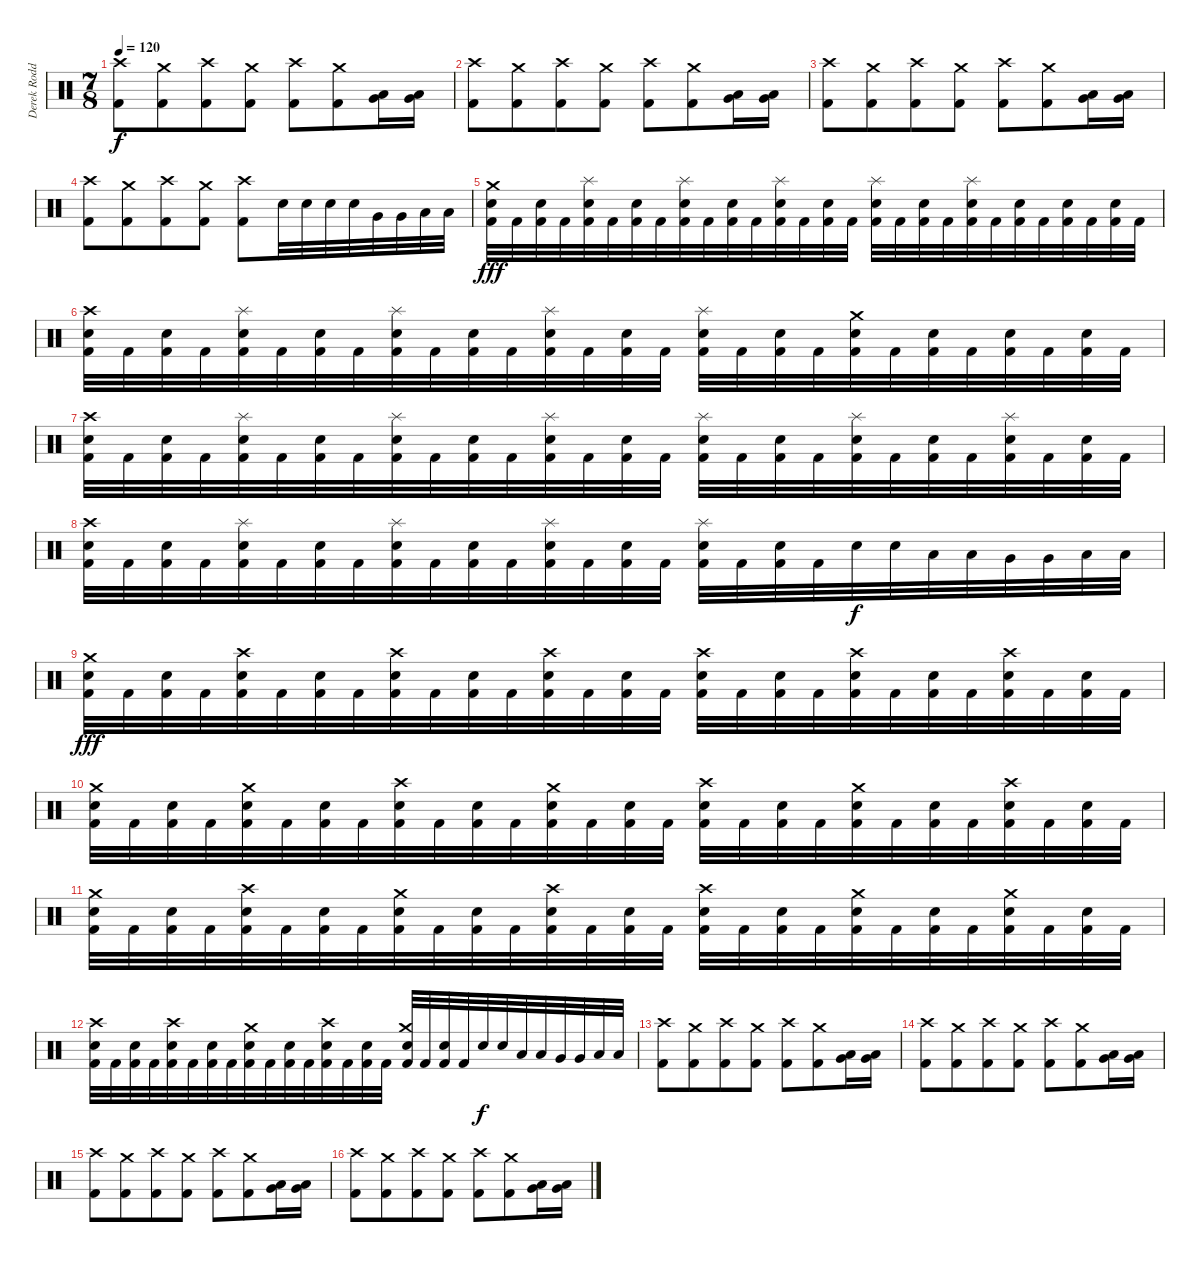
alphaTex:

\track ("Derek Roddy" "Derek Rodd") {instrument percussion}
\staff {score}
\articulation defaults
\ts (7 8)
\tempo 120
\clef neutral
\ks c
("Crash high (hit)" "Kick (hit) 2").8{dy f} ("Crash medium (hit)" "Kick (hit) 2").8 ("Crash high (hit)" "Kick (hit) 2").8 ("Crash medium (hit)" "Kick (hit) 2").8 ("Crash high (hit)" "Kick (hit) 2").8 ("Crash medium (hit)" "Kick (hit) 2").8 ("Low Tom (hit)" "Very Low Tom (hit)").16 ("Very Low Tom (hit)" "Low Floor Tom (hit)").16 |
("Crash high (hit)" "Kick (hit) 2").8 ("Crash medium (hit)" "Kick (hit) 2").8 ("Crash high (hit)" "Kick (hit) 2").8 ("Crash medium (hit)" "Kick (hit) 2").8 ("Crash high (hit)" "Kick (hit) 2").8 ("Crash medium (hit)" "Kick (hit) 2").8 ("Low Tom (hit)" "Very Low Tom (hit)").16 ("Very Low Tom (hit)" "Low Floor Tom (hit)").16 |
("Crash high (hit)" "Kick (hit) 2").8 ("Crash medium (hit)" "Kick (hit) 2").8 ("Crash high (hit)" "Kick (hit) 2").8 ("Crash medium (hit)" "Kick (hit) 2").8 ("Crash high (hit)" "Kick (hit) 2").8 ("Crash medium (hit)" "Kick (hit) 2").8 ("Low Tom (hit)" "Very Low Tom (hit)").16 ("Very Low Tom (hit)" "Low Floor Tom (hit)").16 |
("Crash high (hit)" "Kick (hit) 2").8 ("Crash medium (hit)" "Kick (hit) 2").8 ("Crash high (hit)" "Kick (hit) 2").8 ("Crash medium (hit)" "Kick (hit) 2").8 ("Crash high (hit)" "Kick (hit) 2").8 "Electric Snare (hit)".32 "Electric Snare (hit)".32 "Electric Snare (hit)".32 "Electric Snare (hit)".32 "Very Low Tom (hit)".32 "Very Low Tom (hit)".32 "Low Floor Tom (hit)".32 "Low Floor Tom (hit)".32 |
("Crash medium (hit)" "Electric Snare (hit)" "Kick (hit) 2").32{dy fff} "Kick (hit) 2".32 ("Electric Snare (hit)" "Kick (hit) 2").32 "Kick (hit) 2".32 ("Splash (hit)" "Electric Snare (hit)" "Kick (hit) 2").32 "Kick (hit) 2".32 ("Electric Snare (hit)" "Kick (hit) 2").32 "Kick (hit) 2".32 ("Splash (hit)" "Electric Snare (hit)" "Kick (hit) 2").32 "Kick (hit) 2".32 ("Electric Snare (hit)" "Kick (hit) 2").32 "Kick (hit) 2".32 ("Splash (hit)" "Electric Snare (hit)" "Kick (hit) 2").32 "Kick (hit) 2".32 ("Electric Snare (hit)" "Kick (hit) 2").32 "Kick (hit) 2".32 ("Splash (hit)" "Electric Snare (hit)" "Kick (hit) 2").32 "Kick (hit) 2".32 ("Electric Snare (hit)" "Kick (hit) 2").32 "Kick (hit) 2".32 ("Splash (hit)" "Electric Snare (hit)" "Kick (hit) 2").32 "Kick (hit) 2".32 ("Electric Snare (hit)" "Kick (hit) 2").32 "Kick (hit) 2".32 ("Electric Snare (hit)" "Kick (hit) 2").32 "Kick (hit) 2".32 ("Electric Snare (hit)" "Kick (hit) 2").32 "Kick (hit) 2".32 |
("Crash high (hit)" "Electric Snare (hit)" "Kick (hit) 2").32 "Kick (hit) 2".32 ("Electric Snare (hit)" "Kick (hit) 2").32 "Kick (hit) 2".32 ("Splash (hit)" "Electric Snare (hit)" "Kick (hit) 2").32 "Kick (hit) 2".32 ("Electric Snare (hit)" "Kick (hit) 2").32 "Kick (hit) 2".32 ("Splash (hit)" "Electric Snare (hit)" "Kick (hit) 2").32 "Kick (hit) 2".32 ("Electric Snare (hit)" "Kick (hit) 2").32 "Kick (hit) 2".32 ("Splash (hit)" "Electric Snare (hit)" "Kick (hit) 2").32 "Kick (hit) 2".32 ("Electric Snare (hit)" "Kick (hit) 2").32 "Kick (hit) 2".32 ("Splash (hit)" "Electric Snare (hit)" "Kick (hit) 2").32 "Kick (hit) 2".32 ("Electric Snare (hit)" "Kick (hit) 2").32 "Kick (hit) 2".32 ("Crash medium (hit)" "Electric Snare (hit)" "Kick (hit) 2").32 "Kick (hit) 2".32 ("Electric Snare (hit)" "Kick (hit) 2").32 "Kick (hit) 2".32 ("Electric Snare (hit)" "Kick (hit) 2").32 "Kick (hit) 2".32 ("Electric Snare (hit)" "Kick (hit) 2").32 "Kick (hit) 2".32 |
("Crash high (hit)" "Electric Snare (hit)" "Kick (hit) 2").32 "Kick (hit) 2".32 ("Electric Snare (hit)" "Kick (hit) 2").32 "Kick (hit) 2".32 ("Splash (hit)" "Electric Snare (hit)" "Kick (hit) 2").32 "Kick (hit) 2".32 ("Electric Snare (hit)" "Kick (hit) 2").32 "Kick (hit) 2".32 ("Splash (hit)" "Electric Snare (hit)" "Kick (hit) 2").32 "Kick (hit) 2".32 ("Electric Snare (hit)" "Kick (hit) 2").32 "Kick (hit) 2".32 ("Splash (hit)" "Electric Snare (hit)" "Kick (hit) 2").32 "Kick (hit) 2".32 ("Electric Snare (hit)" "Kick (hit) 2").32 "Kick (hit) 2".32 ("Splash (hit)" "Electric Snare (hit)" "Kick (hit) 2").32 "Kick (hit) 2".32 ("Electric Snare (hit)" "Kick (hit) 2").32 "Kick (hit) 2".32 ("Splash (hit)" "Electric Snare (hit)" "Kick (hit) 2").32 "Kick (hit) 2".32 ("Electric Snare (hit)" "Kick (hit) 2").32 "Kick (hit) 2".32 ("Splash (hit)" "Electric Snare (hit)" "Kick (hit) 2").32 "Kick (hit) 2".32 ("Electric Snare (hit)" "Kick (hit) 2").32 "Kick (hit) 2".32 |
("Crash high (hit)" "Electric Snare (hit)" "Kick (hit) 2").32 "Kick (hit) 2".32 ("Electric Snare (hit)" "Kick (hit) 2").32 "Kick (hit) 2".32 ("Splash (hit)" "Electric Snare (hit)" "Kick (hit) 2").32 "Kick (hit) 2".32 ("Electric Snare (hit)" "Kick (hit) 2").32 "Kick (hit) 2".32 ("Splash (hit)" "Electric Snare (hit)" "Kick (hit) 2").32 "Kick (hit) 2".32 ("Electric Snare (hit)" "Kick (hit) 2").32 "Kick (hit) 2".32 ("Splash (hit)" "Electric Snare (hit)" "Kick (hit) 2").32 "Kick (hit) 2".32 ("Electric Snare (hit)" "Kick (hit) 2").32 "Kick (hit) 2".32 ("Splash (hit)" "Electric Snare (hit)" "Kick (hit) 2").32 "Kick (hit) 2".32 ("Electric Snare (hit)" "Kick (hit) 2").32 "Kick (hit) 2".32 "Electric Snare (hit)".32{dy f} "Electric Snare (hit)".32 "Low Tom (hit)".32 "Low Tom (hit)".32 "Very Low Tom (hit)".32 "Very Low Tom (hit)".32 "Low Floor Tom (hit)".32 "Low Floor Tom (hit)".32 |
("Crash medium (hit)" "Electric Snare (hit)" "Kick (hit) 2").32{dy fff} "Kick (hit) 2".32 ("Electric Snare (hit)" "Kick (hit) 2").32 "Kick (hit) 2".32 ("Crash high (hit)" "Electric Snare (hit)" "Kick (hit) 2").32 "Kick (hit) 2".32 ("Electric Snare (hit)" "Kick (hit) 2").32 "Kick (hit) 2".32 ("Crash high (hit)" "Electric Snare (hit)" "Kick (hit) 2").32 "Kick (hit) 2".32 ("Electric Snare (hit)" "Kick (hit) 2").32 "Kick (hit) 2".32 ("Crash high (hit)" "Electric Snare (hit)" "Kick (hit) 2").32 "Kick (hit) 2".32 ("Electric Snare (hit)" "Kick (hit) 2").32 "Kick (hit) 2".32 ("Crash high (hit)" "Electric Snare (hit)" "Kick (hit) 2").32 "Kick (hit) 2".32 ("Electric Snare (hit)" "Kick (hit) 2").32 "Kick (hit) 2".32 ("Crash high (hit)" "Electric Snare (hit)" "Kick (hit) 2").32 "Kick (hit) 2".32 ("Electric Snare (hit)" "Kick (hit) 2").32 "Kick (hit) 2".32 ("Crash high (hit)" "Electric Snare (hit)" "Kick (hit) 2").32 "Kick (hit) 2".32 ("Electric Snare (hit)" "Kick (hit) 2").32 "Kick (hit) 2".32 |
("Crash medium (hit)" "Electric Snare (hit)" "Kick (hit) 2").32 "Kick (hit) 2".32 ("Electric Snare (hit)" "Kick (hit) 2").32 "Kick (hit) 2".32 ("Crash medium (hit)" "Electric Snare (hit)" "Kick (hit) 2").32 "Kick (hit) 2".32 ("Electric Snare (hit)" "Kick (hit) 2").32 "Kick (hit) 2".32 ("Crash high (hit)" "Electric Snare (hit)" "Kick (hit) 2").32 "Kick (hit) 2".32 ("Electric Snare (hit)" "Kick (hit) 2").32 "Kick (hit) 2".32 ("Crash medium (hit)" "Electric Snare (hit)" "Kick (hit) 2").32 "Kick (hit) 2".32 ("Electric Snare (hit)" "Kick (hit) 2").32 "Kick (hit) 2".32 ("Crash high (hit)" "Electric Snare (hit)" "Kick (hit) 2").32 "Kick (hit) 2".32 ("Electric Snare (hit)" "Kick (hit) 2").32 "Kick (hit) 2".32 ("Crash medium (hit)" "Electric Snare (hit)" "Kick (hit) 2").32 "Kick (hit) 2".32 ("Electric Snare (hit)" "Kick (hit) 2").32 "Kick (hit) 2".32 ("Crash high (hit)" "Electric Snare (hit)" "Kick (hit) 2").32 "Kick (hit) 2".32 ("Electric Snare (hit)" "Kick (hit) 2").32 "Kick (hit) 2".32 |
("Crash medium (hit)" "Electric Snare (hit)" "Kick (hit) 2").32 "Kick (hit) 2".32 ("Electric Snare (hit)" "Kick (hit) 2").32 "Kick (hit) 2".32 ("Crash high (hit)" "Electric Snare (hit)" "Kick (hit) 2").32 "Kick (hit) 2".32 ("Electric Snare (hit)" "Kick (hit) 2").32 "Kick (hit) 2".32 ("Crash medium (hit)" "Electric Snare (hit)" "Kick (hit) 2").32 "Kick (hit) 2".32 ("Electric Snare (hit)" "Kick (hit) 2").32 "Kick (hit) 2".32 ("Crash high (hit)" "Electric Snare (hit)" "Kick (hit) 2").32 "Kick (hit) 2".32 ("Electric Snare (hit)" "Kick (hit) 2").32 "Kick (hit) 2".32 ("Crash high (hit)" "Electric Snare (hit)" "Kick (hit) 2").32 "Kick (hit) 2".32 ("Electric Snare (hit)" "Kick (hit) 2").32 "Kick (hit) 2".32 ("Crash medium (hit)" "Electric Snare (hit)" "Kick (hit) 2").32 "Kick (hit) 2".32 ("Electric Snare (hit)" "Kick (hit) 2").32 "Kick (hit) 2".32 ("Crash medium (hit)" "Electric Snare (hit)" "Kick (hit) 2").32 "Kick (hit) 2".32 ("Electric Snare (hit)" "Kick (hit) 2").32 "Kick (hit) 2".32 |
("Crash high (hit)" "Electric Snare (hit)" "Kick (hit) 2").32 "Kick (hit) 2".32 ("Electric Snare (hit)" "Kick (hit) 2").32 "Kick (hit) 2".32 ("Crash high (hit)" "Electric Snare (hit)" "Kick (hit) 2").32 "Kick (hit) 2".32 ("Electric Snare (hit)" "Kick (hit) 2").32 "Kick (hit) 2".32 ("Crash medium (hit)" "Electric Snare (hit)" "Kick (hit) 2").32 "Kick (hit) 2".32 ("Electric Snare (hit)" "Kick (hit) 2").32 "Kick (hit) 2".32 ("Crash high (hit)" "Electric Snare (hit)" "Kick (hit) 2").32 "Kick (hit) 2".32 ("Electric Snare (hit)" "Kick (hit) 2").32 "Kick (hit) 2".32 ("Crash medium (hit)" "Electric Snare (hit)" "Kick (hit) 2").32 "Kick (hit) 2".32 ("Electric Snare (hit)" "Kick (hit) 2").32 "Kick (hit) 2".32 "Electric Snare (hit)".32{dy f} "Electric Snare (hit)".32 "Low Tom (hit)".32 "Low Tom (hit)".32 "Very Low Tom (hit)".32 "Very Low Tom (hit)".32 "Low Floor Tom (hit)".32 "Low Floor Tom (hit)".32 |
("Crash high (hit)" "Kick (hit) 2").8 ("Crash medium (hit)" "Kick (hit) 2").8 ("Crash high (hit)" "Kick (hit) 2").8 ("Crash medium (hit)" "Kick (hit) 2").8 ("Crash high (hit)" "Kick (hit) 2").8 ("Crash medium (hit)" "Kick (hit) 2").8 ("Low Tom (hit)" "Very Low Tom (hit)").16 ("Very Low Tom (hit)" "Low Floor Tom (hit)").16 |
("Crash high (hit)" "Kick (hit) 2").8 ("Crash medium (hit)" "Kick (hit) 2").8 ("Crash high (hit)" "Kick (hit) 2").8 ("Crash medium (hit)" "Kick (hit) 2").8 ("Crash high (hit)" "Kick (hit) 2").8 ("Crash medium (hit)" "Kick (hit) 2").8 ("Low Tom (hit)" "Very Low Tom (hit)").16 ("Very Low Tom (hit)" "Low Floor Tom (hit)").16 |
("Crash high (hit)" "Kick (hit) 2").8 ("Crash medium (hit)" "Kick (hit) 2").8 ("Crash high (hit)" "Kick (hit) 2").8 ("Crash medium (hit)" "Kick (hit) 2").8 ("Crash high (hit)" "Kick (hit) 2").8 ("Crash medium (hit)" "Kick (hit) 2").8 ("Low Tom (hit)" "Very Low Tom (hit)").16 ("Very Low Tom (hit)" "Low Floor Tom (hit)").16 |
("Crash high (hit)" "Kick (hit) 2").8 ("Crash medium (hit)" "Kick (hit) 2").8 ("Crash high (hit)" "Kick (hit) 2").8 ("Crash medium (hit)" "Kick (hit) 2").8 ("Crash high (hit)" "Kick (hit) 2").8 ("Crash medium (hit)" "Kick (hit) 2").8 ("Low Tom (hit)" "Very Low Tom (hit)").16 ("Very Low Tom (hit)" "Low Floor Tom (hit)").16
